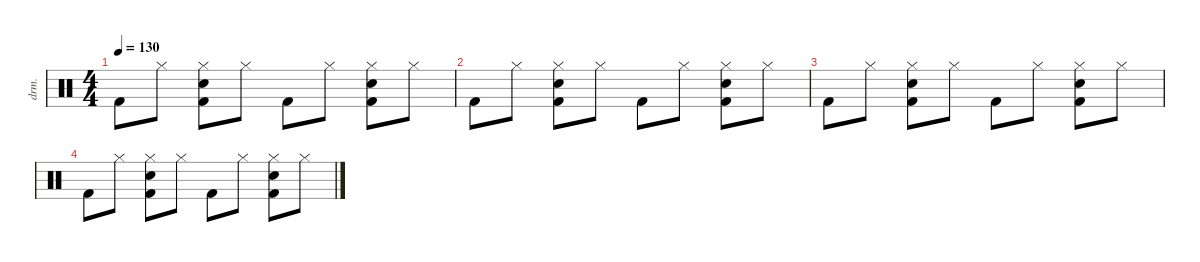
\defaultSystemsLayout 4
\hideDynamics
\bracketExtendMode nobrackets
\otherSystemsTrackNameOrientation horizontal
\track ("Percussion" "drm.") {defaultSystemsLayout 4 instrument percussion}
\staff {score}
\articulation defaults
\ts (4 4)
\tempo 130
\clef neutral
\ks c "Kick (hit) 2".8{dy f beam Down} "Hi-Hat (closed)".8{beam Down}
("Hi-Hat (closed)" "Snare (hit) 2" "Kick (hit) 2").8{beam Down} "Hi-Hat (closed)".8{beam Down} "Kick (hit) 2".8{beam Down} "Hi-Hat (closed)".8{beam Down} ("Hi-Hat (closed)" "Snare (hit) 2" "Kick (hit) 2").8{beam Down} "Hi-Hat (closed)".8{beam Down} |
"Kick (hit) 2".8{beam Down} "Hi-Hat (closed)".8{beam Down} ("Hi-Hat (closed)" "Snare (hit) 2" "Kick (hit) 2").8{beam Down} "Hi-Hat (closed)".8{beam Down} "Kick (hit) 2".8{beam Down} "Hi-Hat (closed)".8{beam Down} ("Hi-Hat (closed)" "Snare (hit) 2" "Kick (hit) 2").8{beam Down} "Hi-Hat (closed)".8{beam Down} |
"Kick (hit) 2".8{beam Down} "Hi-Hat (closed)".8{beam Down} ("Hi-Hat (closed)" "Snare (hit) 2" "Kick (hit) 2").8{beam Down} "Hi-Hat (closed)".8{beam Down} "Kick (hit) 2".8{beam Down} "Hi-Hat (closed)".8{beam Down} ("Hi-Hat (closed)" "Snare (hit) 2" "Kick (hit) 2").8{beam Down} "Hi-Hat (closed)".8{beam Down} |
"Kick (hit) 2".8{beam Down} "Hi-Hat (closed)".8{beam Down} ("Hi-Hat (closed)" "Snare (hit) 2" "Kick (hit) 2").8{beam Down} "Hi-Hat (closed)".8{beam Down} "Kick (hit) 2".8{beam Down} "Hi-Hat (closed)".8{beam Down} ("Hi-Hat (closed)" "Snare (hit) 2" "Kick (hit) 2").8{beam Down} "Hi-Hat (closed)".8{beam Down}
